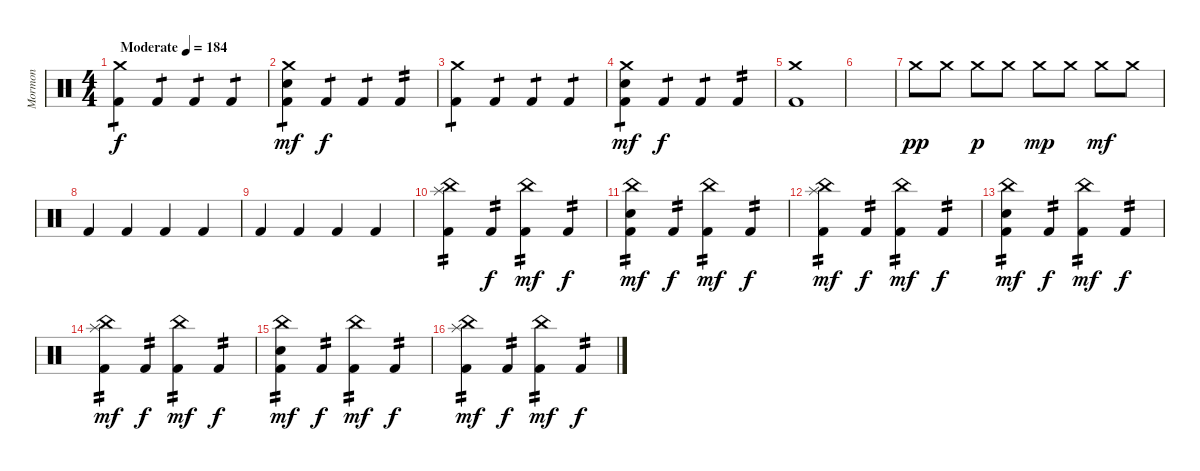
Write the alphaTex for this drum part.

\track ("Mormon" "Mormon") {solo instrument percussion}
\staff {score}
\articulation defaults
\ts (4 4)
\tempo (184 "Moderate")
\clef neutral
\ks c
("Crash medium (hit)" "Kick (hit) 2").4{tp 1 dy f} "Kick (hit) 2".4{tp 1} "Kick (hit) 2".4{tp 1} "Kick (hit) 2".4{tp 1} |
("Crash medium (hit)" "Snare (hit) 2" "Kick (hit) 2").4{tp 1 dy mf} "Kick (hit) 2".4{tp 1 dy f} "Kick (hit) 2".4{tp 1} "Kick (hit) 2".4{tp 2} |
("Crash medium (hit)" "Kick (hit) 2").4{tp 1} "Kick (hit) 2".4{tp 1} "Kick (hit) 2".4{tp 1} "Kick (hit) 2".4{tp 1} |
("Crash medium (hit)" "Snare (hit) 2" "Kick (hit) 2").4{tp 1 dy mf} "Kick (hit) 2".4{tp 1 dy f} "Kick (hit) 2".4{tp 1} "Kick (hit) 2".4{tp 2} |
("Crash medium (hit)" "Kick (hit) 2").1 |
|
"Crash medium (hit)".8{dy pp} "Crash medium (hit)".8 "Crash medium (hit)".8{dy p} "Crash medium (hit)".8 "Crash medium (hit)".8{dy mp} "Crash medium (hit)".8 "Crash medium (hit)".8{dy mf} "Crash medium (hit)".8 |
"Kick (hit) 2".4 "Kick (hit) 2".4 "Kick (hit) 2".4 "Kick (hit) 2".4 |
"Kick (hit) 2".4 "Kick (hit) 2".4 "Kick (hit) 2".4 "Kick (hit) 2".4 |
("China (hit)" "Splash (hit)" "Kick (hit) 2").4{tp 2} "Kick (hit) 2".4{tp 2 dy f} ("China (hit)" "Kick (hit) 2").4{tp 2 dy mf} "Kick (hit) 2".4{tp 2 dy f} |
("China (hit)" "Snare (hit) 2" "Kick (hit) 2").4{tp 2 dy mf} "Kick (hit) 2".4{tp 2 dy f} ("China (hit)" "Kick (hit) 2").4{tp 2 dy mf} "Kick (hit) 2".4{tp 2 dy f} |
("China (hit)" "Splash (hit)" "Kick (hit) 2").4{tp 2 dy mf} "Kick (hit) 2".4{tp 2 dy f} ("China (hit)" "Kick (hit) 2").4{tp 2 dy mf} "Kick (hit) 2".4{tp 2 dy f} |
("China (hit)" "Snare (hit) 2" "Kick (hit) 2").4{tp 2 dy mf} "Kick (hit) 2".4{tp 2 dy f} ("China (hit)" "Kick (hit) 2").4{tp 2 dy mf} "Kick (hit) 2".4{tp 2 dy f} |
("China (hit)" "Splash (hit)" "Kick (hit) 2").4{tp 2 dy mf} "Kick (hit) 2".4{tp 2 dy f} ("China (hit)" "Kick (hit) 2").4{tp 2 dy mf} "Kick (hit) 2".4{tp 2 dy f} |
("China (hit)" "Snare (hit) 2" "Kick (hit) 2").4{tp 2 dy mf} "Kick (hit) 2".4{tp 2 dy f} ("China (hit)" "Kick (hit) 2").4{tp 2 dy mf} "Kick (hit) 2".4{tp 2 dy f} |
("China (hit)" "Splash (hit)" "Kick (hit) 2").4{tp 2 dy mf} "Kick (hit) 2".4{tp 2 dy f} ("China (hit)" "Kick (hit) 2").4{tp 2 dy mf} "Kick (hit) 2".4{tp 2 dy f}
